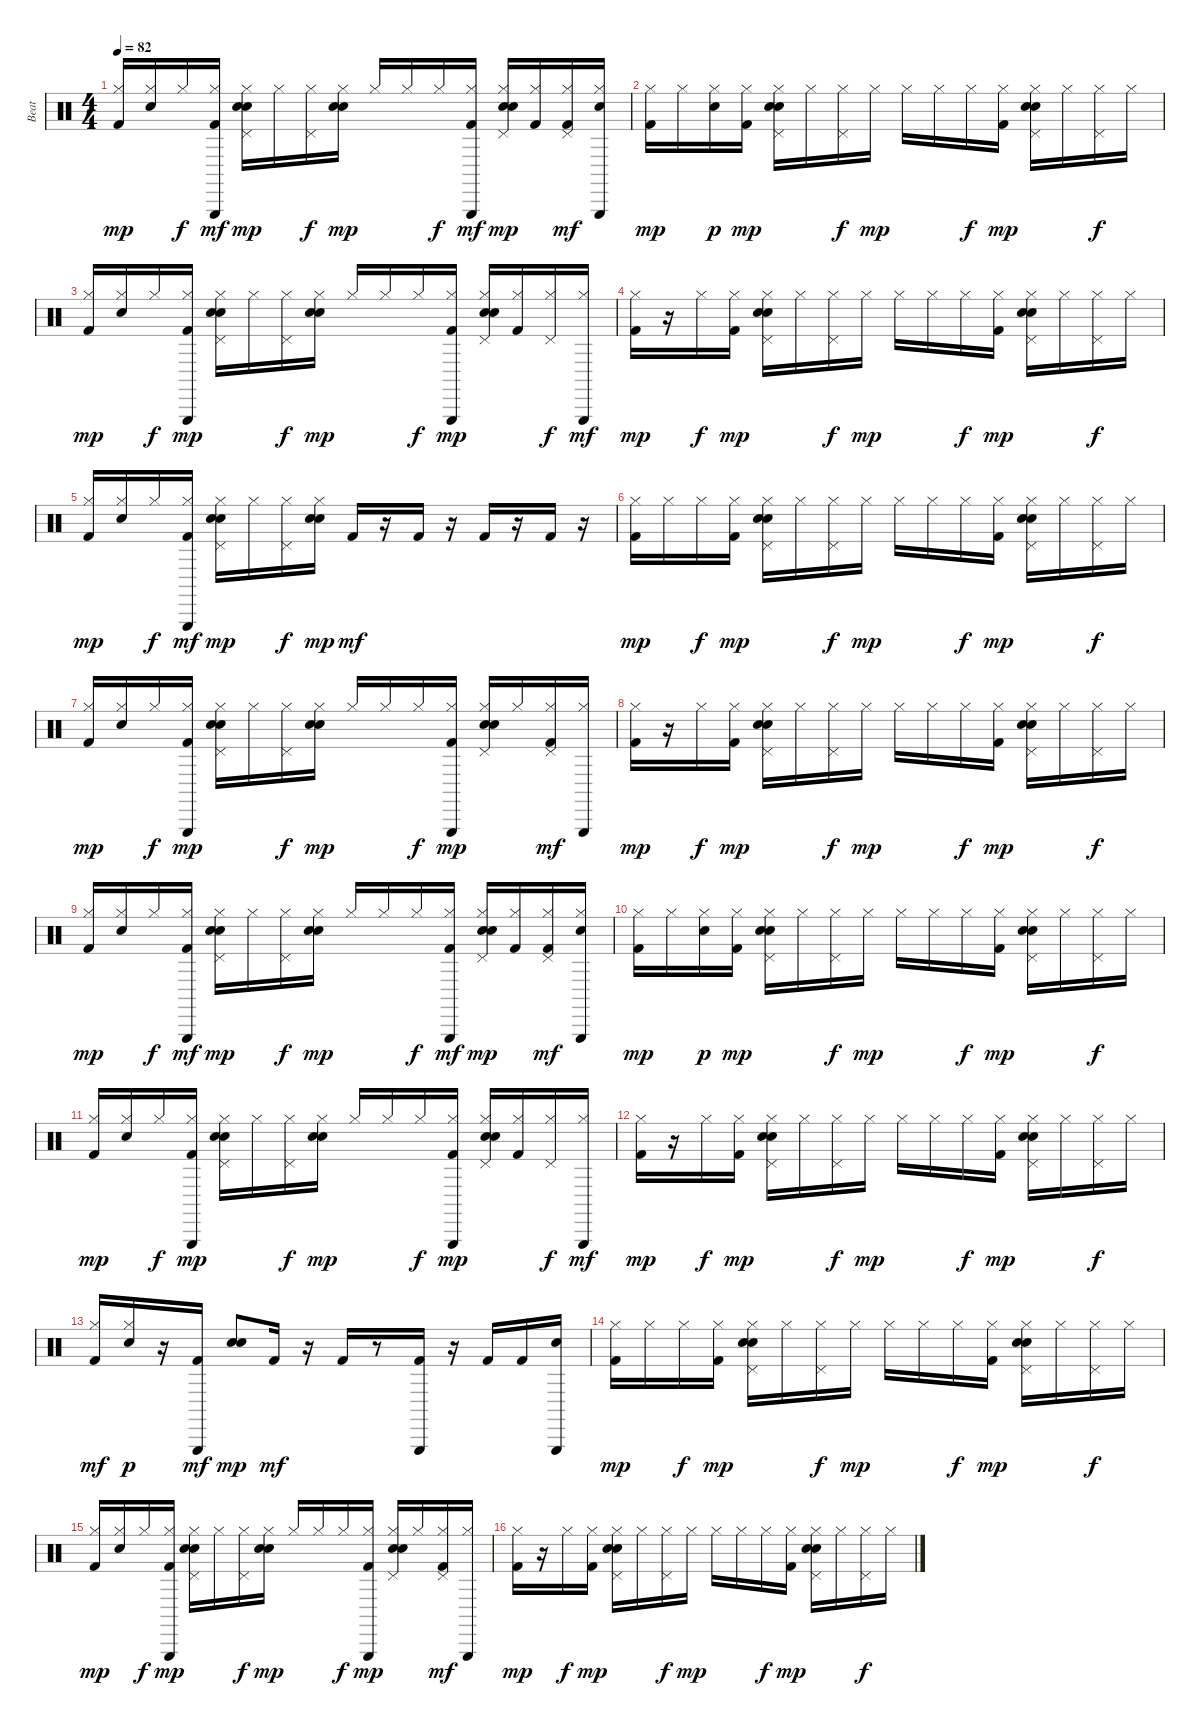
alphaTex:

\track ("Beat" "Beat") {instrument percussion}
\staff {score}
\articulation defaults
\ts (4 4)
\tempo 82
\clef neutral
\ks c
("Kick (hit) 2" "Hi-Hat (closed)").16{dy mp} ("Hand Clap (hit)" "Hi-Hat (closed)").16 "Hi-Hat (closed)".16{dy f} ("Kick (hit) 2" "Hi-Hat (closed)" "Triangle (hit)").16{dy mf} ("Pedal Hi-Hat (hit)" "Hi-Hat (closed)" "Hand Clap (hit)" "Electric Snare (hit)").16{dy mp} "Hi-Hat (closed)".16 ("Pedal Hi-Hat (hit)" "Hi-Hat (closed)").16{dy f} ("Electric Snare (hit)" "Hi-Hat (closed)" "Hand Clap (hit)").16{dy mp} "Hi-Hat (closed)".16 "Hi-Hat (closed)".16 "Hi-Hat (closed)".16{dy f} ("Kick (hit) 2" "Hi-Hat (closed)" "Triangle (hit)").16{dy mf} ("Pedal Hi-Hat (hit)" "Hi-Hat (closed)" "Hand Clap (hit)" "Electric Snare (hit)").16{dy mp} ("Kick (hit) 2" "Hi-Hat (closed)").16 ("Kick (hit) 2" "Pedal Hi-Hat (hit)" "Hi-Hat (closed)").16{dy mf} ("Hand Clap (hit)" "Hi-Hat (closed)" "Triangle (hit)").16 |
("Kick (hit) 2" "Hi-Hat (closed)").16{dy mp} "Hi-Hat (closed)".16 ("Hand Clap (hit)" "Hi-Hat (closed)").16{dy p} ("Kick (hit) 2" "Hi-Hat (closed)").16{dy mp} ("Pedal Hi-Hat (hit)" "Hi-Hat (closed)" "Hand Clap (hit)" "Electric Snare (hit)").16 "Hi-Hat (closed)".16 ("Pedal Hi-Hat (hit)" "Hi-Hat (closed)").16{dy f} "Hi-Hat (closed)".16{dy mp} "Hi-Hat (closed)".16 "Hi-Hat (closed)".16 "Hi-Hat (closed)".16{dy f} ("Kick (hit) 2" "Hi-Hat (closed)").16{dy mp} ("Pedal Hi-Hat (hit)" "Hi-Hat (closed)" "Hand Clap (hit)" "Electric Snare (hit)").16 "Hi-Hat (closed)".16 ("Pedal Hi-Hat (hit)" "Hi-Hat (closed)").16{dy f} "Hi-Hat (closed)".16 |
("Kick (hit) 2" "Hi-Hat (closed)").16{dy mp} ("Hand Clap (hit)" "Hi-Hat (closed)").16 "Hi-Hat (closed)".16{dy f} ("Kick (hit) 2" "Triangle (hit)" "Hi-Hat (closed)").16{dy mp} ("Pedal Hi-Hat (hit)" "Hi-Hat (closed)" "Hand Clap (hit)" "Electric Snare (hit)").16 "Hi-Hat (closed)".16 ("Pedal Hi-Hat (hit)" "Hi-Hat (closed)").16{dy f} ("Electric Snare (hit)" "Hi-Hat (closed)" "Hand Clap (hit)").16{dy mp} "Hi-Hat (closed)".16 "Hi-Hat (closed)".16 "Hi-Hat (closed)".16{dy f} ("Kick (hit) 2" "Triangle (hit)" "Hi-Hat (closed)").16{dy mp} ("Pedal Hi-Hat (hit)" "Hi-Hat (closed)" "Hand Clap (hit)" "Electric Snare (hit)").16 ("Kick (hit) 2" "Hi-Hat (closed)").16 ("Pedal Hi-Hat (hit)" "Hi-Hat (closed)").16{dy f} ("Triangle (hit)" "Hi-Hat (closed)").16{dy mf} |
("Kick (hit) 2" "Hi-Hat (closed)").16{dy mp} r.16 "Hi-Hat (closed)".16{dy f} ("Kick (hit) 2" "Hi-Hat (closed)").16{dy mp} ("Pedal Hi-Hat (hit)" "Hi-Hat (closed)" "Hand Clap (hit)" "Electric Snare (hit)").16 "Hi-Hat (closed)".16 ("Pedal Hi-Hat (hit)" "Hi-Hat (closed)").16{dy f} "Hi-Hat (closed)".16{dy mp} "Hi-Hat (closed)".16 "Hi-Hat (closed)".16 "Hi-Hat (closed)".16{dy f} ("Kick (hit) 2" "Hi-Hat (closed)").16{dy mp} ("Pedal Hi-Hat (hit)" "Hi-Hat (closed)" "Hand Clap (hit)" "Electric Snare (hit)").16 "Hi-Hat (closed)".16 ("Pedal Hi-Hat (hit)" "Hi-Hat (closed)").16{dy f} "Hi-Hat (closed)".16 |
("Kick (hit) 2" "Hi-Hat (closed)").16{dy mp} ("Hand Clap (hit)" "Hi-Hat (closed)").16 "Hi-Hat (closed)".16{dy f} ("Kick (hit) 2" "Hi-Hat (closed)" "Triangle (hit)").16{dy mf} ("Pedal Hi-Hat (hit)" "Hi-Hat (closed)" "Hand Clap (hit)" "Electric Snare (hit)").16{dy mp} "Hi-Hat (closed)".16 ("Pedal Hi-Hat (hit)" "Hi-Hat (closed)").16{dy f} ("Electric Snare (hit)" "Hi-Hat (closed)" "Hand Clap (hit)").16{dy mp} "Kick (hit) 2".16{dy mf} r.16 "Kick (hit) 2".16 r.16 "Kick (hit) 2".16 r.16 "Kick (hit) 2".16 r.16 |
("Kick (hit) 2" "Hi-Hat (closed)").16{dy mp} "Hi-Hat (closed)".16 "Hi-Hat (closed)".16{dy f} ("Kick (hit) 2" "Hi-Hat (closed)").16{dy mp} ("Pedal Hi-Hat (hit)" "Hi-Hat (closed)" "Hand Clap (hit)" "Electric Snare (hit)").16 "Hi-Hat (closed)".16 ("Pedal Hi-Hat (hit)" "Hi-Hat (closed)").16{dy f} "Hi-Hat (closed)".16{dy mp} "Hi-Hat (closed)".16 "Hi-Hat (closed)".16 "Hi-Hat (closed)".16{dy f} ("Kick (hit) 2" "Hi-Hat (closed)").16{dy mp} ("Pedal Hi-Hat (hit)" "Hi-Hat (closed)" "Hand Clap (hit)" "Electric Snare (hit)").16 "Hi-Hat (closed)".16 ("Pedal Hi-Hat (hit)" "Hi-Hat (closed)").16{dy f} "Hi-Hat (closed)".16 |
("Kick (hit) 2" "Hi-Hat (closed)").16{dy mp} ("Hand Clap (hit)" "Hi-Hat (closed)").16 "Hi-Hat (closed)".16{dy f} ("Kick (hit) 2" "Triangle (hit)" "Hi-Hat (closed)").16{dy mp} ("Pedal Hi-Hat (hit)" "Hi-Hat (closed)" "Hand Clap (hit)" "Electric Snare (hit)").16 "Hi-Hat (closed)".16 ("Pedal Hi-Hat (hit)" "Hi-Hat (closed)").16{dy f} ("Electric Snare (hit)" "Hi-Hat (closed)" "Hand Clap (hit)").16{dy mp} "Hi-Hat (closed)".16 "Hi-Hat (closed)".16 "Hi-Hat (closed)".16{dy f} ("Kick (hit) 2" "Triangle (hit)" "Hi-Hat (closed)").16{dy mp} ("Pedal Hi-Hat (hit)" "Hi-Hat (closed)" "Hand Clap (hit)" "Electric Snare (hit)").16 "Hi-Hat (closed)".16 ("Kick (hit) 2" "Pedal Hi-Hat (hit)" "Hi-Hat (closed)").16{dy mf} ("Triangle (hit)" "Hi-Hat (closed)").16 |
("Kick (hit) 2" "Hi-Hat (closed)").16{dy mp} r.16 "Hi-Hat (closed)".16{dy f} ("Kick (hit) 2" "Hi-Hat (closed)").16{dy mp} ("Pedal Hi-Hat (hit)" "Hi-Hat (closed)" "Hand Clap (hit)" "Electric Snare (hit)").16 "Hi-Hat (closed)".16 ("Pedal Hi-Hat (hit)" "Hi-Hat (closed)").16{dy f} "Hi-Hat (closed)".16{dy mp} "Hi-Hat (closed)".16 "Hi-Hat (closed)".16 "Hi-Hat (closed)".16{dy f} ("Kick (hit) 2" "Hi-Hat (closed)").16{dy mp} ("Pedal Hi-Hat (hit)" "Hi-Hat (closed)" "Hand Clap (hit)" "Electric Snare (hit)").16 "Hi-Hat (closed)".16 ("Pedal Hi-Hat (hit)" "Hi-Hat (closed)").16{dy f} "Hi-Hat (closed)".16 |
("Kick (hit) 2" "Hi-Hat (closed)").16{dy mp} ("Hand Clap (hit)" "Hi-Hat (closed)").16 "Hi-Hat (closed)".16{dy f} ("Kick (hit) 2" "Hi-Hat (closed)" "Triangle (hit)").16{dy mf} ("Pedal Hi-Hat (hit)" "Hi-Hat (closed)" "Hand Clap (hit)" "Electric Snare (hit)").16{dy mp} "Hi-Hat (closed)".16 ("Pedal Hi-Hat (hit)" "Hi-Hat (closed)").16{dy f} ("Electric Snare (hit)" "Hi-Hat (closed)" "Hand Clap (hit)").16{dy mp} "Hi-Hat (closed)".16 "Hi-Hat (closed)".16 "Hi-Hat (closed)".16{dy f} ("Kick (hit) 2" "Hi-Hat (closed)" "Triangle (hit)").16{dy mf} ("Pedal Hi-Hat (hit)" "Hi-Hat (closed)" "Hand Clap (hit)" "Electric Snare (hit)").16{dy mp} ("Kick (hit) 2" "Hi-Hat (closed)").16 ("Kick (hit) 2" "Pedal Hi-Hat (hit)" "Hi-Hat (closed)").16{dy mf} ("Hand Clap (hit)" "Hi-Hat (closed)" "Triangle (hit)").16 |
("Kick (hit) 2" "Hi-Hat (closed)").16{dy mp} "Hi-Hat (closed)".16 ("Hand Clap (hit)" "Hi-Hat (closed)").16{dy p} ("Kick (hit) 2" "Hi-Hat (closed)").16{dy mp} ("Pedal Hi-Hat (hit)" "Hi-Hat (closed)" "Hand Clap (hit)" "Electric Snare (hit)").16 "Hi-Hat (closed)".16 ("Pedal Hi-Hat (hit)" "Hi-Hat (closed)").16{dy f} "Hi-Hat (closed)".16{dy mp} "Hi-Hat (closed)".16 "Hi-Hat (closed)".16 "Hi-Hat (closed)".16{dy f} ("Kick (hit) 2" "Hi-Hat (closed)").16{dy mp} ("Pedal Hi-Hat (hit)" "Hi-Hat (closed)" "Hand Clap (hit)" "Electric Snare (hit)").16 "Hi-Hat (closed)".16 ("Pedal Hi-Hat (hit)" "Hi-Hat (closed)").16{dy f} "Hi-Hat (closed)".16 |
("Kick (hit) 2" "Hi-Hat (closed)").16{dy mp} ("Hand Clap (hit)" "Hi-Hat (closed)").16 "Hi-Hat (closed)".16{dy f} ("Kick (hit) 2" "Triangle (hit)" "Hi-Hat (closed)").16{dy mp} ("Pedal Hi-Hat (hit)" "Hi-Hat (closed)" "Hand Clap (hit)" "Electric Snare (hit)").16 "Hi-Hat (closed)".16 ("Pedal Hi-Hat (hit)" "Hi-Hat (closed)").16{dy f} ("Electric Snare (hit)" "Hi-Hat (closed)" "Hand Clap (hit)").16{dy mp} "Hi-Hat (closed)".16 "Hi-Hat (closed)".16 "Hi-Hat (closed)".16{dy f} ("Kick (hit) 2" "Triangle (hit)" "Hi-Hat (closed)").16{dy mp} ("Pedal Hi-Hat (hit)" "Hi-Hat (closed)" "Hand Clap (hit)" "Electric Snare (hit)").16 ("Kick (hit) 2" "Hi-Hat (closed)").16 ("Pedal Hi-Hat (hit)" "Hi-Hat (closed)").16{dy f} ("Triangle (hit)" "Hi-Hat (closed)").16{dy mf} |
("Kick (hit) 2" "Hi-Hat (closed)").16{dy mp} r.16 "Hi-Hat (closed)".16{dy f} ("Kick (hit) 2" "Hi-Hat (closed)").16{dy mp} ("Pedal Hi-Hat (hit)" "Hi-Hat (closed)" "Hand Clap (hit)" "Electric Snare (hit)").16 "Hi-Hat (closed)".16 ("Pedal Hi-Hat (hit)" "Hi-Hat (closed)").16{dy f} "Hi-Hat (closed)".16{dy mp} "Hi-Hat (closed)".16 "Hi-Hat (closed)".16 "Hi-Hat (closed)".16{dy f} ("Kick (hit) 2" "Hi-Hat (closed)").16{dy mp} ("Pedal Hi-Hat (hit)" "Hi-Hat (closed)" "Hand Clap (hit)" "Electric Snare (hit)").16 "Hi-Hat (closed)".16 ("Pedal Hi-Hat (hit)" "Hi-Hat (closed)").16{dy f} "Hi-Hat (closed)".16 |
("Hi-Hat (closed)" "Kick (hit) 2").16{dy mf} ("Hi-Hat (closed)" "Hand Clap (hit)").16{dy p} r.16 ("Kick (hit) 2" "Triangle (hit)").16{dy mf} ("Hand Clap (hit)" "Electric Snare (hit)").8{dy mp} "Kick (hit) 2".16{dy mf} r.16 "Kick (hit) 2".16 r.8 ("Kick (hit) 2" "Triangle (hit)").16 r.16 "Kick (hit) 2".16 "Kick (hit) 2".16 ("Hand Clap (hit)" "Triangle (hit)").16 |
("Kick (hit) 2" "Hi-Hat (closed)").16{dy mp} "Hi-Hat (closed)".16 "Hi-Hat (closed)".16{dy f} ("Kick (hit) 2" "Hi-Hat (closed)").16{dy mp} ("Pedal Hi-Hat (hit)" "Hi-Hat (closed)" "Hand Clap (hit)" "Electric Snare (hit)").16 "Hi-Hat (closed)".16 ("Pedal Hi-Hat (hit)" "Hi-Hat (closed)").16{dy f} "Hi-Hat (closed)".16{dy mp} "Hi-Hat (closed)".16 "Hi-Hat (closed)".16 "Hi-Hat (closed)".16{dy f} ("Kick (hit) 2" "Hi-Hat (closed)").16{dy mp} ("Pedal Hi-Hat (hit)" "Hi-Hat (closed)" "Hand Clap (hit)" "Electric Snare (hit)").16 "Hi-Hat (closed)".16 ("Pedal Hi-Hat (hit)" "Hi-Hat (closed)").16{dy f} "Hi-Hat (closed)".16 |
("Kick (hit) 2" "Hi-Hat (closed)").16{dy mp} ("Hand Clap (hit)" "Hi-Hat (closed)").16 "Hi-Hat (closed)".16{dy f} ("Kick (hit) 2" "Triangle (hit)" "Hi-Hat (closed)").16{dy mp} ("Pedal Hi-Hat (hit)" "Hi-Hat (closed)" "Hand Clap (hit)" "Electric Snare (hit)").16 "Hi-Hat (closed)".16 ("Pedal Hi-Hat (hit)" "Hi-Hat (closed)").16{dy f} ("Electric Snare (hit)" "Hi-Hat (closed)" "Hand Clap (hit)").16{dy mp} "Hi-Hat (closed)".16 "Hi-Hat (closed)".16 "Hi-Hat (closed)".16{dy f} ("Kick (hit) 2" "Triangle (hit)" "Hi-Hat (closed)").16{dy mp} ("Pedal Hi-Hat (hit)" "Hi-Hat (closed)" "Hand Clap (hit)" "Electric Snare (hit)").16 "Hi-Hat (closed)".16 ("Kick (hit) 2" "Pedal Hi-Hat (hit)" "Hi-Hat (closed)").16{dy mf} ("Triangle (hit)" "Hi-Hat (closed)").16 |
("Kick (hit) 2" "Hi-Hat (closed)").16{dy mp} r.16 "Hi-Hat (closed)".16{dy f} ("Kick (hit) 2" "Hi-Hat (closed)").16{dy mp} ("Pedal Hi-Hat (hit)" "Hi-Hat (closed)" "Hand Clap (hit)" "Electric Snare (hit)").16 "Hi-Hat (closed)".16 ("Pedal Hi-Hat (hit)" "Hi-Hat (closed)").16{dy f} "Hi-Hat (closed)".16{dy mp} "Hi-Hat (closed)".16 "Hi-Hat (closed)".16 "Hi-Hat (closed)".16{dy f} ("Kick (hit) 2" "Hi-Hat (closed)").16{dy mp} ("Pedal Hi-Hat (hit)" "Hi-Hat (closed)" "Hand Clap (hit)" "Electric Snare (hit)").16 "Hi-Hat (closed)".16 ("Pedal Hi-Hat (hit)" "Hi-Hat (closed)").16{dy f} "Hi-Hat (closed)".16
